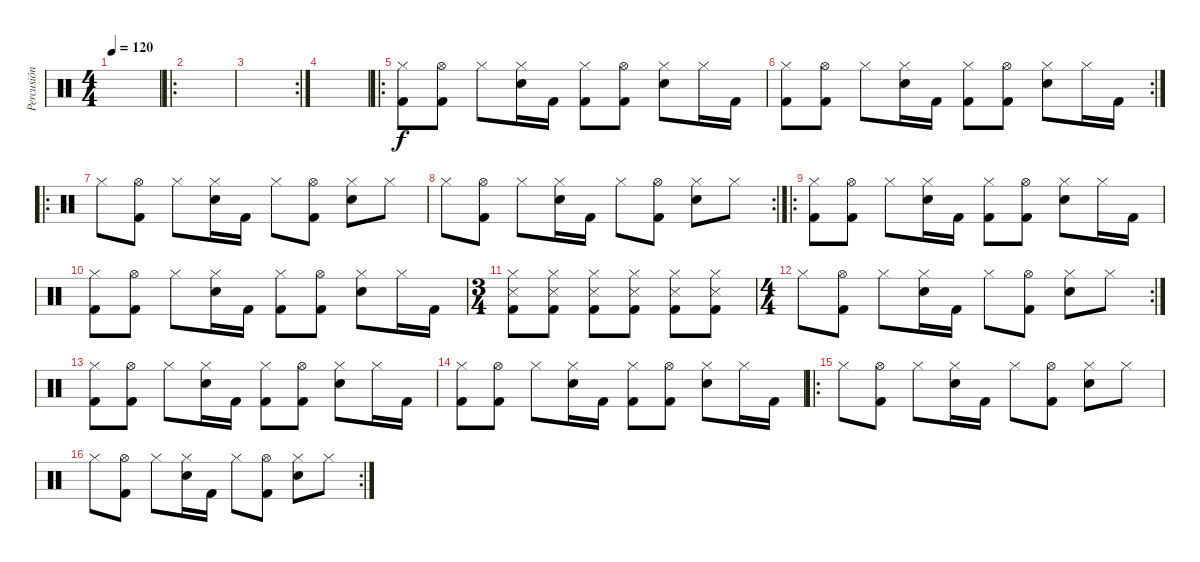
\track ("Percusión" "Percusión") {instrument percussion}
\staff {score}
\articulation defaults
\ts (4 4)
\tempo 120
\clef neutral
\ks c
|
\ro
|
\rc 2
|
|
\ro
("Hi-Hat (closed)" "Kick (hit) 2").8 ("Hi-Hat (open)" "Kick (hit) 2").8 "Hi-Hat (closed)".8 ("Hi-Hat (closed)" "Snare (hit) 2").16 "Kick (hit) 2".16 ("Hi-Hat (closed)" "Kick (hit) 2").8 ("Hi-Hat (open)" "Kick (hit) 2").8 ("Hi-Hat (closed)" "Snare (hit) 2").8 "Hi-Hat (closed)".16 "Kick (hit) 2".16 |
\rc 2
("Hi-Hat (closed)" "Kick (hit) 2").8 ("Hi-Hat (open)" "Kick (hit) 2").8 "Hi-Hat (closed)".8 ("Hi-Hat (closed)" "Snare (hit) 2").16 "Kick (hit) 2".16 ("Hi-Hat (closed)" "Kick (hit) 2").8 ("Hi-Hat (open)" "Kick (hit) 2").8 ("Hi-Hat (closed)" "Snare (hit) 2").8 "Hi-Hat (closed)".16 "Kick (hit) 2".16 |
\ro "Hi-Hat (closed)".8
("Hi-Hat (open)" "Kick (hit) 2").8 "Hi-Hat (closed)".8 ("Hi-Hat (closed)" "Snare (hit) 2").16 "Kick (hit) 2".16 "Hi-Hat (closed)".8 ("Hi-Hat (open)" "Kick (hit) 2").8 ("Hi-Hat (closed)" "Snare (hit) 2").8 "Hi-Hat (closed)".8 |
\rc 2 "Hi-Hat (closed)".8
("Hi-Hat (open)" "Kick (hit) 2").8 "Hi-Hat (closed)".8 ("Hi-Hat (closed)" "Snare (hit) 2").16 "Kick (hit) 2".16 "Hi-Hat (closed)".8 ("Hi-Hat (open)" "Kick (hit) 2").8 ("Hi-Hat (closed)" "Snare (hit) 2").8 "Hi-Hat (closed)".8 |
\ro
("Hi-Hat (closed)" "Kick (hit) 2").8 ("Hi-Hat (open)" "Kick (hit) 2").8 "Hi-Hat (closed)".8 ("Hi-Hat (closed)" "Snare (hit) 2").16 "Kick (hit) 2".16 ("Hi-Hat (closed)" "Kick (hit) 2").8 ("Hi-Hat (open)" "Kick (hit) 2").8 ("Hi-Hat (closed)" "Snare (hit) 2").8 "Hi-Hat (closed)".16 "Kick (hit) 2".16 |
("Hi-Hat (closed)" "Kick (hit) 2").8 ("Hi-Hat (open)" "Kick (hit) 2").8 "Hi-Hat (closed)".8 ("Hi-Hat (closed)" "Snare (hit) 2").16 "Kick (hit) 2".16 ("Hi-Hat (closed)" "Kick (hit) 2").8 ("Hi-Hat (open)" "Kick (hit) 2").8 ("Hi-Hat (closed)" "Snare (hit) 2").8 "Hi-Hat (closed)".16 "Kick (hit) 2".16 |
\ts (3 4)
("Hi-Hat (closed)" "Snare (side stick) 3" "Kick (hit) 2").8 ("Hi-Hat (closed)" "Snare (side stick) 3" "Kick (hit) 2").8 ("Hi-Hat (closed)" "Snare (side stick) 3" "Kick (hit) 2").8 ("Hi-Hat (closed)" "Snare (side stick) 3" "Kick (hit) 2").8 ("Hi-Hat (closed)" "Snare (side stick) 3" "Kick (hit) 2").8 ("Hi-Hat (closed)" "Snare (side stick) 3" "Kick (hit) 2").8 |
\rc 2
\ts (4 4)
"Hi-Hat (closed)".8 ("Hi-Hat (open)" "Kick (hit) 2").8 "Hi-Hat (closed)".8 ("Hi-Hat (closed)" "Snare (hit) 2").16 "Kick (hit) 2".16 "Hi-Hat (closed)".8 ("Hi-Hat (open)" "Kick (hit) 2").8 ("Hi-Hat (closed)" "Snare (hit) 2").8 "Hi-Hat (closed)".8 |
("Hi-Hat (closed)" "Kick (hit) 2").8 ("Hi-Hat (open)" "Kick (hit) 2").8 "Hi-Hat (closed)".8 ("Hi-Hat (closed)" "Snare (hit) 2").16 "Kick (hit) 2".16 ("Hi-Hat (closed)" "Kick (hit) 2").8 ("Hi-Hat (open)" "Kick (hit) 2").8 ("Hi-Hat (closed)" "Snare (hit) 2").8 "Hi-Hat (closed)".16 "Kick (hit) 2".16 |
("Hi-Hat (closed)" "Kick (hit) 2").8 ("Hi-Hat (open)" "Kick (hit) 2").8 "Hi-Hat (closed)".8 ("Hi-Hat (closed)" "Snare (hit) 2").16 "Kick (hit) 2".16 ("Hi-Hat (closed)" "Kick (hit) 2").8 ("Hi-Hat (open)" "Kick (hit) 2").8 ("Hi-Hat (closed)" "Snare (hit) 2").8 "Hi-Hat (closed)".16 "Kick (hit) 2".16 |
\ro "Hi-Hat (closed)".8
("Hi-Hat (open)" "Kick (hit) 2").8 "Hi-Hat (closed)".8 ("Hi-Hat (closed)" "Snare (hit) 2").16 "Kick (hit) 2".16 "Hi-Hat (closed)".8 ("Hi-Hat (open)" "Kick (hit) 2").8 ("Hi-Hat (closed)" "Snare (hit) 2").8 "Hi-Hat (closed)".8 |
\rc 2 "Hi-Hat (closed)".8
("Hi-Hat (open)" "Kick (hit) 2").8 "Hi-Hat (closed)".8 ("Hi-Hat (closed)" "Snare (hit) 2").16 "Kick (hit) 2".16 "Hi-Hat (closed)".8 ("Hi-Hat (open)" "Kick (hit) 2").8 ("Hi-Hat (closed)" "Snare (hit) 2").8 "Hi-Hat (closed)".8
